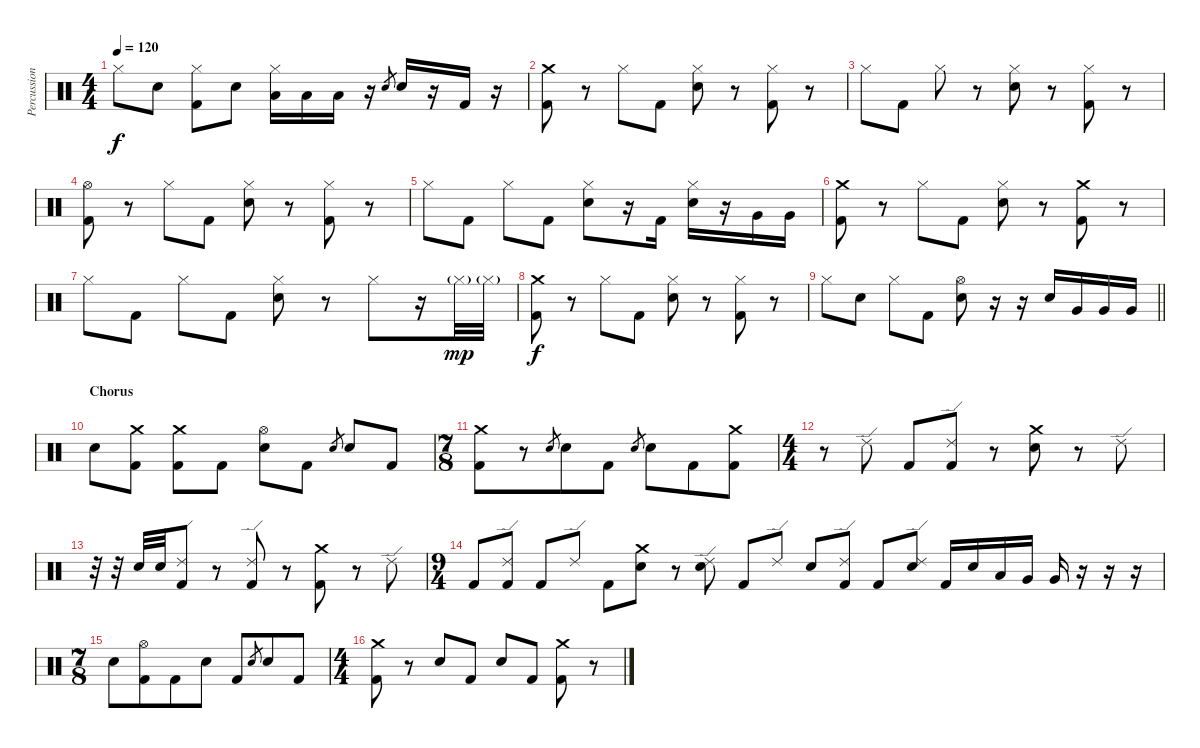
\track ("Percussion" "Percussion") {instrument percussion}
\staff {score}
\articulation defaults
\ts (4 4)
\tempo 120
\clef neutral
\ks c "Hi-Hat (closed)".8{dy f} "Electric Snare (hit)".8
("Hi-Hat (closed)" "Kick (hit) 2").8 "Electric Snare (hit)".8 ("Hi-Hat (closed)" "Low Tom (hit)").16 "Low Tom (hit)".16 "Low Tom (hit)".16 r.16 "Electric Snare (hit)".8{gr} "Electric Snare (hit)".16 r.16 "Kick (hit) 2".16 r.16 |
("Crash medium (hit)" "Kick (hit) 2").8 r.8 "Hi-Hat (closed)".8 "Kick (hit) 2".8 ("Hi-Hat (closed)" "Electric Snare (hit)").8 r.8 ("Hi-Hat (closed)" "Kick (hit) 2").8 r.8 |
"Hi-Hat (closed)".8 "Kick (hit) 2".8 "Hi-Hat (closed)".8 r.8 ("Hi-Hat (closed)" "Electric Snare (hit)").8 r.8 ("Hi-Hat (closed)" "Kick (hit) 2").8 r.8 |
("Hi-Hat (open)" "Kick (hit) 2").8 r.8 "Hi-Hat (closed)".8 "Kick (hit) 2".8 ("Hi-Hat (closed)" "Electric Snare (hit)").8 r.8 ("Hi-Hat (closed)" "Kick (hit) 2").8 r.8 |
"Hi-Hat (closed)".8 "Kick (hit) 2".8 "Hi-Hat (closed)".8 "Kick (hit) 2".8 ("Hi-Hat (closed)" "Electric Snare (hit)").8 r.16 "Kick (hit) 2".16 ("Hi-Hat (closed)" "Electric Snare (hit)").16 r.16 "Very Low Tom (hit)".16 "Very Low Tom (hit)".16 |
("Crash medium (hit)" "Kick (hit) 2").8 r.8 "Hi-Hat (closed)".8 "Kick (hit) 2".8 ("Hi-Hat (closed)" "Electric Snare (hit)").8 r.8 ("Crash medium (hit)" "Kick (hit) 2").8 r.8 |
"Hi-Hat (closed)".8 "Kick (hit) 2".8 "Hi-Hat (closed)".8 "Kick (hit) 2".8 ("Hi-Hat (closed)" "Electric Snare (hit)").8 r.8 "Hi-Hat (closed)".8 r.16 "Hi-Hat (closed)"{g}.32{dy mp} "Hi-Hat (closed)"{g}.32 |
("Crash medium (hit)" "Kick (hit) 2").8{dy f} r.8 "Hi-Hat (closed)".8 "Kick (hit) 2".8 ("Hi-Hat (closed)" "Electric Snare (hit)").8 r.8 ("Hi-Hat (closed)" "Kick (hit) 2").8 r.8 |
\barLineRight lightlight "Hi-Hat (closed)".8 "Electric Snare (hit)".8 "Hi-Hat (closed)".8 "Kick (hit) 2".8
("Hi-Hat (open)" "Electric Snare (hit)").8 r.16 r.16 "Electric Snare (hit)".16 "Very Low Tom (hit)".16 "Very Low Tom (hit)".16 "Very Low Tom (hit)".16 |
\section ("" "Chorus")
"Electric Snare (hit)".8 ("Crash medium (hit)" "Kick (hit) 2").8 ("Crash medium (hit)" "Kick (hit) 2").8 "Kick (hit) 2".8 ("Hi-Hat (open)" "Electric Snare (hit)").8 "Kick (hit) 2".8 "Electric Snare (hit)".8{gr} "Electric Snare (hit)".8 "Kick (hit) 2".8 |
\ts (7 8)
("Crash medium (hit)" "Kick (hit) 2").8 r.8 "Electric Snare (hit)".8{gr} "Electric Snare (hit)".8 "Kick (hit) 2".8 "Electric Snare (hit)".8{gr} "Electric Snare (hit)".8 "Kick (hit) 2".8 ("Crash medium (hit)" "Kick (hit) 2").8 |
\ts (4 4)
r.8 "Ride (edge) 2".8 "Kick (hit) 2".8 ("Ride (edge) 2" "Kick (hit) 2").8 r.8 ("Crash medium (hit)" "Electric Snare (hit)").8 r.8 "Ride (edge) 2".8 |
r.32 r.32 "Electric Snare (hit)".32 "Electric Snare (hit)".32 ("Ride (edge) 2" "Kick (hit) 2").8 r.8 ("Ride (edge) 2" "Kick (hit) 2").8 r.8 ("Crash medium (hit)" "Kick (hit) 2").8 r.8 "Ride (edge) 2".8 |
\ts (9 4)
"Kick (hit) 2".8 ("Ride (edge) 2" "Kick (hit) 2").8 "Kick (hit) 2".8 "Ride (edge) 2".8 "Kick (hit) 2".8 ("Crash medium (hit)" "Electric Snare (hit)").8 r.8 ("Ride (edge) 2" "Electric Snare (hit)").8 "Kick (hit) 2".8 "Ride (edge) 2".8 "Electric Snare (hit)".8 ("Ride (edge) 2" "Kick (hit) 2").8 "Kick (hit) 2".8 ("Ride (edge) 2" "Electric Snare (hit)").8 "Kick (hit) 2".16 "Electric Snare (hit)".16 "Low Tom (hit)".16 "Very Low Tom (hit)".16 "Very Low Tom (hit)".16 r.16 r.16 r.16 |
\ts (7 8)
"Electric Snare (hit)".8 ("Hi-Hat (open)" "Kick (hit) 2").8 "Kick (hit) 2".8 "Electric Snare (hit)".8 "Kick (hit) 2".8 "Electric Snare (hit)".8{gr} "Electric Snare (hit)".8 "Kick (hit) 2".8 |
\ts (4 4)
("Crash medium (hit)" "Kick (hit) 2").8 r.8 "Electric Snare (hit)".8 "Kick (hit) 2".8 "Electric Snare (hit)".8 "Kick (hit) 2".8 ("Crash medium (hit)" "Kick (hit) 2").8 r.8
